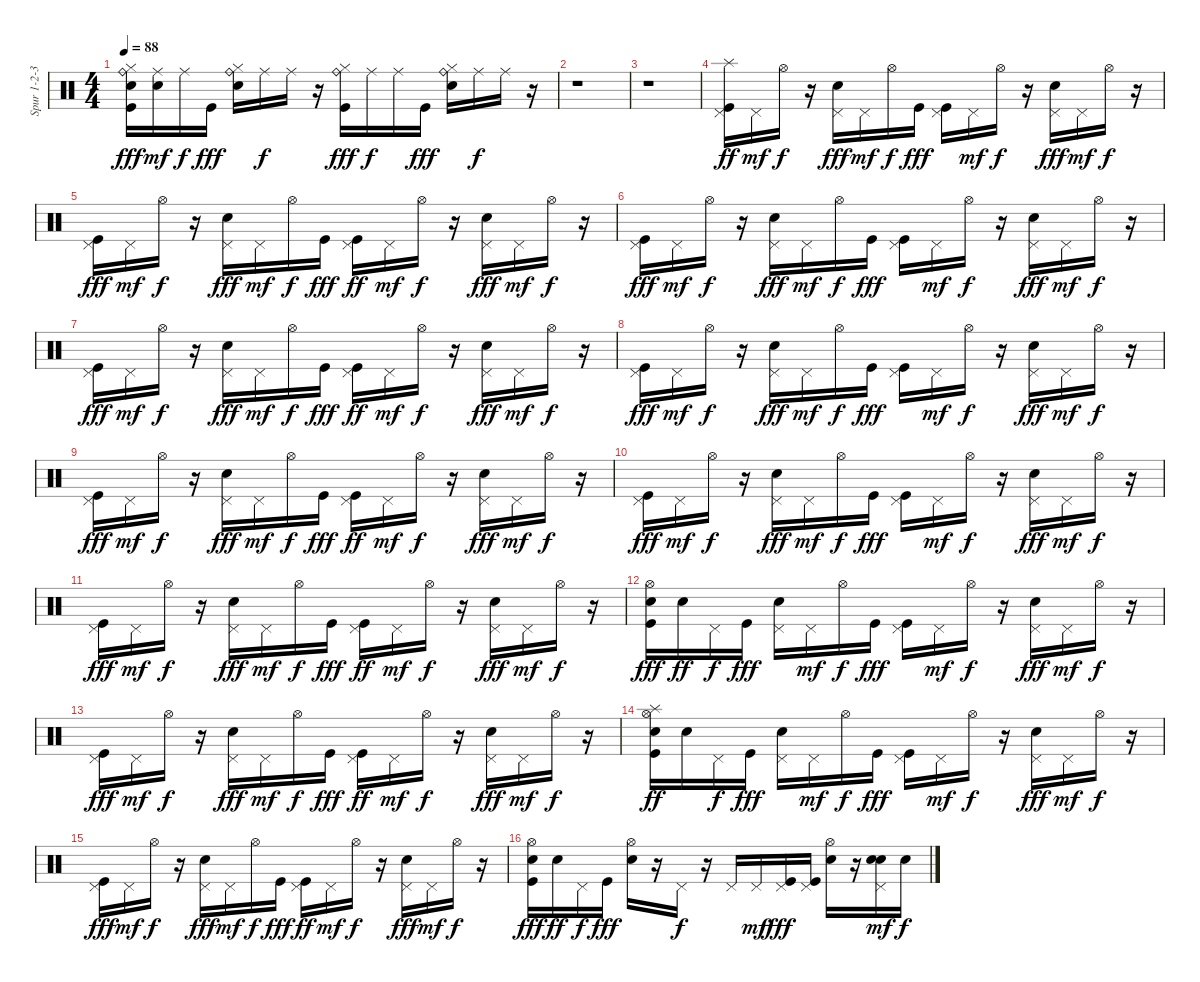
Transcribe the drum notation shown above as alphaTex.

\track ("Spur 1-2-3-4" "Spur 1-2-3") {instrument percussion}
\staff {score}
\articulation defaults
\ts (4 4)
\tempo 88
\clef neutral
\ks c
("Hi-Hat (closed)" "Snare (hit) 2" "Kick (hit)" "Ride (bell)").16{dy fff} ("Snare (hit) 2" "Ride (middle)").16{dy mf} "Ride (middle)".16{dy f} "Kick (hit)".16{dy fff} ("Hi-Hat (closed)" "Snare (hit) 2" "Ride (bell)").16 "Ride (middle)".16{dy f} "Ride (middle)".16 r.16 ("Hi-Hat (closed)" "Kick (hit)" "Ride (bell)").16{dy fff} "Ride (middle)".16{dy f} "Ride (middle)".16 "Kick (hit)".16{dy fff} ("Hi-Hat (closed)" "Snare (hit) 2" "Ride (bell)").16 "Ride (middle)".16{dy f} "Ride (middle)".16 r.16 |
r.1 |
r.1 |
("Pedal Hi-Hat (hit)" "Kick (hit)" "Splash (hit)").16{dy ff} "Pedal Hi-Hat (hit)".16{dy mf} "Hi-Hat (open)".16{dy f} r.16 ("Pedal Hi-Hat (hit)" "Snare (hit) 2").16{dy fff} "Pedal Hi-Hat (hit)".16{dy mf} "Hi-Hat (open)".16{dy f} "Kick (hit)".16{dy fff} ("Pedal Hi-Hat (hit)" "Kick (hit)").16 "Pedal Hi-Hat (hit)".16{dy mf} "Hi-Hat (open)".16{dy f} r.16 ("Pedal Hi-Hat (hit)" "Snare (hit) 2").16{dy fff} "Pedal Hi-Hat (hit)".16{dy mf} "Hi-Hat (open)".16{dy f} r.16 |
("Pedal Hi-Hat (hit)" "Kick (hit)").16{dy fff} "Pedal Hi-Hat (hit)".16{dy mf} "Hi-Hat (open)".16{dy f} r.16 ("Pedal Hi-Hat (hit)" "Snare (hit) 2").16{dy fff} "Pedal Hi-Hat (hit)".16{dy mf} "Hi-Hat (open)".16{dy f} "Kick (hit)".16{dy fff} ("Pedal Hi-Hat (hit)" "Kick (hit)").16{dy ff} "Pedal Hi-Hat (hit)".16{dy mf} "Hi-Hat (open)".16{dy f} r.16 ("Pedal Hi-Hat (hit)" "Snare (hit) 2").16{dy fff} "Pedal Hi-Hat (hit)".16{dy mf} "Hi-Hat (open)".16{dy f} r.16 |
("Pedal Hi-Hat (hit)" "Kick (hit)").16{dy fff} "Pedal Hi-Hat (hit)".16{dy mf} "Hi-Hat (open)".16{dy f} r.16 ("Pedal Hi-Hat (hit)" "Snare (hit) 2").16{dy fff} "Pedal Hi-Hat (hit)".16{dy mf} "Hi-Hat (open)".16{dy f} "Kick (hit)".16{dy fff} ("Pedal Hi-Hat (hit)" "Kick (hit)").16 "Pedal Hi-Hat (hit)".16{dy mf} "Hi-Hat (open)".16{dy f} r.16 ("Pedal Hi-Hat (hit)" "Snare (hit) 2").16{dy fff} "Pedal Hi-Hat (hit)".16{dy mf} "Hi-Hat (open)".16{dy f} r.16 |
("Pedal Hi-Hat (hit)" "Kick (hit)").16{dy fff} "Pedal Hi-Hat (hit)".16{dy mf} "Hi-Hat (open)".16{dy f} r.16 ("Pedal Hi-Hat (hit)" "Snare (hit) 2").16{dy fff} "Pedal Hi-Hat (hit)".16{dy mf} "Hi-Hat (open)".16{dy f} "Kick (hit)".16{dy fff} ("Pedal Hi-Hat (hit)" "Kick (hit)").16{dy ff} "Pedal Hi-Hat (hit)".16{dy mf} "Hi-Hat (open)".16{dy f} r.16 ("Pedal Hi-Hat (hit)" "Snare (hit) 2").16{dy fff} "Pedal Hi-Hat (hit)".16{dy mf} "Hi-Hat (open)".16{dy f} r.16 |
("Pedal Hi-Hat (hit)" "Kick (hit)").16{dy fff} "Pedal Hi-Hat (hit)".16{dy mf} "Hi-Hat (open)".16{dy f} r.16 ("Pedal Hi-Hat (hit)" "Snare (hit) 2").16{dy fff} "Pedal Hi-Hat (hit)".16{dy mf} "Hi-Hat (open)".16{dy f} "Kick (hit)".16{dy fff} ("Pedal Hi-Hat (hit)" "Kick (hit)").16 "Pedal Hi-Hat (hit)".16{dy mf} "Hi-Hat (open)".16{dy f} r.16 ("Pedal Hi-Hat (hit)" "Snare (hit) 2").16{dy fff} "Pedal Hi-Hat (hit)".16{dy mf} "Hi-Hat (open)".16{dy f} r.16 |
("Pedal Hi-Hat (hit)" "Kick (hit)").16{dy fff} "Pedal Hi-Hat (hit)".16{dy mf} "Hi-Hat (open)".16{dy f} r.16 ("Pedal Hi-Hat (hit)" "Snare (hit) 2").16{dy fff} "Pedal Hi-Hat (hit)".16{dy mf} "Hi-Hat (open)".16{dy f} "Kick (hit)".16{dy fff} ("Pedal Hi-Hat (hit)" "Kick (hit)").16{dy ff} "Pedal Hi-Hat (hit)".16{dy mf} "Hi-Hat (open)".16{dy f} r.16 ("Pedal Hi-Hat (hit)" "Snare (hit) 2").16{dy fff} "Pedal Hi-Hat (hit)".16{dy mf} "Hi-Hat (open)".16{dy f} r.16 |
("Pedal Hi-Hat (hit)" "Kick (hit)").16{dy fff} "Pedal Hi-Hat (hit)".16{dy mf} "Hi-Hat (open)".16{dy f} r.16 ("Pedal Hi-Hat (hit)" "Snare (hit) 2").16{dy fff} "Pedal Hi-Hat (hit)".16{dy mf} "Hi-Hat (open)".16{dy f} "Kick (hit)".16{dy fff} ("Pedal Hi-Hat (hit)" "Kick (hit)").16 "Pedal Hi-Hat (hit)".16{dy mf} "Hi-Hat (open)".16{dy f} r.16 ("Pedal Hi-Hat (hit)" "Snare (hit) 2").16{dy fff} "Pedal Hi-Hat (hit)".16{dy mf} "Hi-Hat (open)".16{dy f} r.16 |
("Pedal Hi-Hat (hit)" "Kick (hit)").16{dy fff} "Pedal Hi-Hat (hit)".16{dy mf} "Hi-Hat (open)".16{dy f} r.16 ("Pedal Hi-Hat (hit)" "Snare (hit) 2").16{dy fff} "Pedal Hi-Hat (hit)".16{dy mf} "Hi-Hat (open)".16{dy f} "Kick (hit)".16{dy fff} ("Pedal Hi-Hat (hit)" "Kick (hit)").16{dy ff} "Pedal Hi-Hat (hit)".16{dy mf} "Hi-Hat (open)".16{dy f} r.16 ("Pedal Hi-Hat (hit)" "Snare (hit) 2").16{dy fff} "Pedal Hi-Hat (hit)".16{dy mf} "Hi-Hat (open)".16{dy f} r.16 |
("Hi-Hat (open)" "Snare (hit) 2" "Kick (hit)").16{dy fff} "Snare (hit) 2".16{dy ff} "Pedal Hi-Hat (hit)".16{dy f} "Kick (hit)".16{dy fff} ("Pedal Hi-Hat (hit)" "Snare (hit) 2").16 "Pedal Hi-Hat (hit)".16{dy mf} "Hi-Hat (open)".16{dy f} "Kick (hit)".16{dy fff} ("Pedal Hi-Hat (hit)" "Kick (hit)").16 "Pedal Hi-Hat (hit)".16{dy mf} "Hi-Hat (open)".16{dy f} r.16 ("Pedal Hi-Hat (hit)" "Snare (hit) 2").16{dy fff} "Pedal Hi-Hat (hit)".16{dy mf} "Hi-Hat (open)".16{dy f} r.16 |
("Pedal Hi-Hat (hit)" "Kick (hit)").16{dy fff} "Pedal Hi-Hat (hit)".16{dy mf} "Hi-Hat (open)".16{dy f} r.16 ("Pedal Hi-Hat (hit)" "Snare (hit) 2").16{dy fff} "Pedal Hi-Hat (hit)".16{dy mf} "Hi-Hat (open)".16{dy f} "Kick (hit)".16{dy fff} ("Pedal Hi-Hat (hit)" "Kick (hit)").16{dy ff} "Pedal Hi-Hat (hit)".16{dy mf} "Hi-Hat (open)".16{dy f} r.16 ("Pedal Hi-Hat (hit)" "Snare (hit) 2").16{dy fff} "Pedal Hi-Hat (hit)".16{dy mf} "Hi-Hat (open)".16{dy f} r.16 |
("Hi-Hat (open)" "Snare (hit) 2" "Kick (hit)" "Splash (hit)").16{dy ff} "Snare (hit) 2".16 "Pedal Hi-Hat (hit)".16{dy f} "Kick (hit)".16{dy fff} ("Pedal Hi-Hat (hit)" "Snare (hit) 2").16 "Pedal Hi-Hat (hit)".16{dy mf} "Hi-Hat (open)".16{dy f} "Kick (hit)".16{dy fff} ("Pedal Hi-Hat (hit)" "Kick (hit)").16 "Pedal Hi-Hat (hit)".16{dy mf} "Hi-Hat (open)".16{dy f} r.16 ("Pedal Hi-Hat (hit)" "Snare (hit) 2").16{dy fff} "Pedal Hi-Hat (hit)".16{dy mf} "Hi-Hat (open)".16{dy f} r.16 |
("Pedal Hi-Hat (hit)" "Kick (hit)").16{dy fff} "Pedal Hi-Hat (hit)".16{dy mf} "Hi-Hat (open)".16{dy f} r.16 ("Pedal Hi-Hat (hit)" "Snare (hit) 2").16{dy fff} "Pedal Hi-Hat (hit)".16{dy mf} "Hi-Hat (open)".16{dy f} "Kick (hit)".16{dy fff} ("Pedal Hi-Hat (hit)" "Kick (hit)").16{dy ff} "Pedal Hi-Hat (hit)".16{dy mf} "Hi-Hat (open)".16{dy f} r.16 ("Pedal Hi-Hat (hit)" "Snare (hit) 2").16{dy fff} "Pedal Hi-Hat (hit)".16{dy mf} "Hi-Hat (open)".16{dy f} r.16 |
("Hi-Hat (open)" "Snare (hit) 2" "Kick (hit)").16{dy fff} "Snare (hit) 2".16{dy ff} "Pedal Hi-Hat (hit)".16{dy f} "Kick (hit)".16{dy fff} ("Hi-Hat (open)" "Snare (hit) 2").16 r.16 "Pedal Hi-Hat (hit)".16{dy f} r.16 "Pedal Hi-Hat (hit)".16 "Pedal Hi-Hat (hit)".16{dy mf} ("Pedal Hi-Hat (hit)" "Kick (hit)").16{dy fff} ("Pedal Hi-Hat (hit)" "Kick (hit)").16 ("Hi-Hat (open)" "Snare (hit) 2").16 r.16 ("Pedal Hi-Hat (hit)" "Snare (hit) 2" "Snare (hit) 2").16{dy mf} "Snare (hit) 2".16{dy f}
